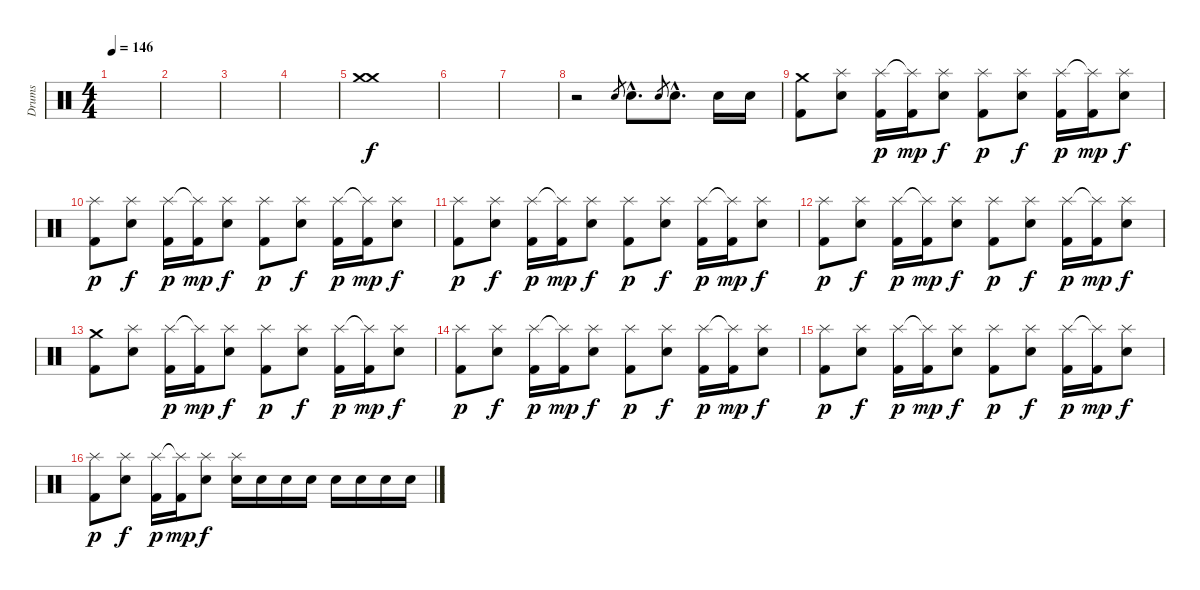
\track ("Drums" "Drums") {instrument percussion}
\staff {score}
\articulation defaults
\ts (4 4)
\tempo 146
\clef neutral
\ks c
|
|
|
|
("Crash medium (hit)" "Crash medium (hit)").1 |
|
|
r.2 "Snare (hit) 2".8{gr} "Snare (hit) 2"{hac}.8{d} "Snare (hit) 2".8{gr} "Snare (hit) 2"{hac}.8{d} "Snare (hit) 2".16 "Snare (hit) 2".16 |
("Crash medium (hit)" "Kick (hit) 2").8 ("Splash (hit)" "Snare (hit) 2").8 ("Splash (hit)" "Kick (hit) 2").16{dy p} ("Splash (hit)"{t} "Kick (hit) 2").16{dy mp} ("Splash (hit)" "Snare (hit) 2").8{dy f} ("Splash (hit)" "Kick (hit) 2").8{dy p} ("Splash (hit)" "Snare (hit) 2").8{dy f} ("Splash (hit)" "Kick (hit) 2").16{dy p} ("Splash (hit)"{t} "Kick (hit) 2").16{dy mp} ("Splash (hit)" "Snare (hit) 2").8{dy f} |
("Splash (hit)" "Kick (hit) 2").8{dy p} ("Splash (hit)" "Snare (hit) 2").8{dy f} ("Splash (hit)" "Kick (hit) 2").16{dy p} ("Splash (hit)"{t} "Kick (hit) 2").16{dy mp} ("Splash (hit)" "Snare (hit) 2").8{dy f} ("Splash (hit)" "Kick (hit) 2").8{dy p} ("Splash (hit)" "Snare (hit) 2").8{dy f} ("Splash (hit)" "Kick (hit) 2").16{dy p} ("Splash (hit)"{t} "Kick (hit) 2").16{dy mp} ("Splash (hit)" "Snare (hit) 2").8{dy f} |
("Splash (hit)" "Kick (hit) 2").8{dy p} ("Splash (hit)" "Snare (hit) 2").8{dy f} ("Splash (hit)" "Kick (hit) 2").16{dy p} ("Splash (hit)"{t} "Kick (hit) 2").16{dy mp} ("Splash (hit)" "Snare (hit) 2").8{dy f} ("Splash (hit)" "Kick (hit) 2").8{dy p} ("Splash (hit)" "Snare (hit) 2").8{dy f} ("Splash (hit)" "Kick (hit) 2").16{dy p} ("Splash (hit)"{t} "Kick (hit) 2").16{dy mp} ("Splash (hit)" "Snare (hit) 2").8{dy f} |
("Splash (hit)" "Kick (hit) 2").8{dy p} ("Splash (hit)" "Snare (hit) 2").8{dy f} ("Splash (hit)" "Kick (hit) 2").16{dy p} ("Splash (hit)"{t} "Kick (hit) 2").16{dy mp} ("Splash (hit)" "Snare (hit) 2").8{dy f} ("Splash (hit)" "Kick (hit) 2").8{dy p} ("Splash (hit)" "Snare (hit) 2").8{dy f} ("Splash (hit)" "Kick (hit) 2").16{dy p} ("Splash (hit)"{t} "Kick (hit) 2").16{dy mp} ("Splash (hit)" "Snare (hit) 2").8{dy f} |
("Crash medium (hit)" "Kick (hit) 2").8 ("Splash (hit)" "Snare (hit) 2").8 ("Splash (hit)" "Kick (hit) 2").16{dy p} ("Splash (hit)"{t} "Kick (hit) 2").16{dy mp} ("Splash (hit)" "Snare (hit) 2").8{dy f} ("Splash (hit)" "Kick (hit) 2").8{dy p} ("Splash (hit)" "Snare (hit) 2").8{dy f} ("Splash (hit)" "Kick (hit) 2").16{dy p} ("Splash (hit)"{t} "Kick (hit) 2").16{dy mp} ("Splash (hit)" "Snare (hit) 2").8{dy f} |
("Splash (hit)" "Kick (hit) 2").8{dy p} ("Splash (hit)" "Snare (hit) 2").8{dy f} ("Splash (hit)" "Kick (hit) 2").16{dy p} ("Splash (hit)"{t} "Kick (hit) 2").16{dy mp} ("Splash (hit)" "Snare (hit) 2").8{dy f} ("Splash (hit)" "Kick (hit) 2").8{dy p} ("Splash (hit)" "Snare (hit) 2").8{dy f} ("Splash (hit)" "Kick (hit) 2").16{dy p} ("Splash (hit)"{t} "Kick (hit) 2").16{dy mp} ("Splash (hit)" "Snare (hit) 2").8{dy f} |
("Splash (hit)" "Kick (hit) 2").8{dy p} ("Splash (hit)" "Snare (hit) 2").8{dy f} ("Splash (hit)" "Kick (hit) 2").16{dy p} ("Splash (hit)"{t} "Kick (hit) 2").16{dy mp} ("Splash (hit)" "Snare (hit) 2").8{dy f} ("Splash (hit)" "Kick (hit) 2").8{dy p} ("Splash (hit)" "Snare (hit) 2").8{dy f} ("Splash (hit)" "Kick (hit) 2").16{dy p} ("Splash (hit)"{t} "Kick (hit) 2").16{dy mp} ("Splash (hit)" "Snare (hit) 2").8{dy f} |
("Splash (hit)" "Kick (hit) 2").8{dy p} ("Splash (hit)" "Snare (hit) 2").8{dy f} ("Splash (hit)" "Kick (hit) 2").16{dy p} ("Splash (hit)"{t} "Kick (hit) 2").16{dy mp} ("Splash (hit)" "Snare (hit) 2").8{dy f} ("Splash (hit)" "Snare (hit) 2").16 "Snare (hit) 2".16 "Snare (hit) 2".16 "Snare (hit) 2".16 "Snare (hit) 2".16 "Snare (hit) 2".16 "Snare (hit) 2".16 "Snare (hit) 2".16
